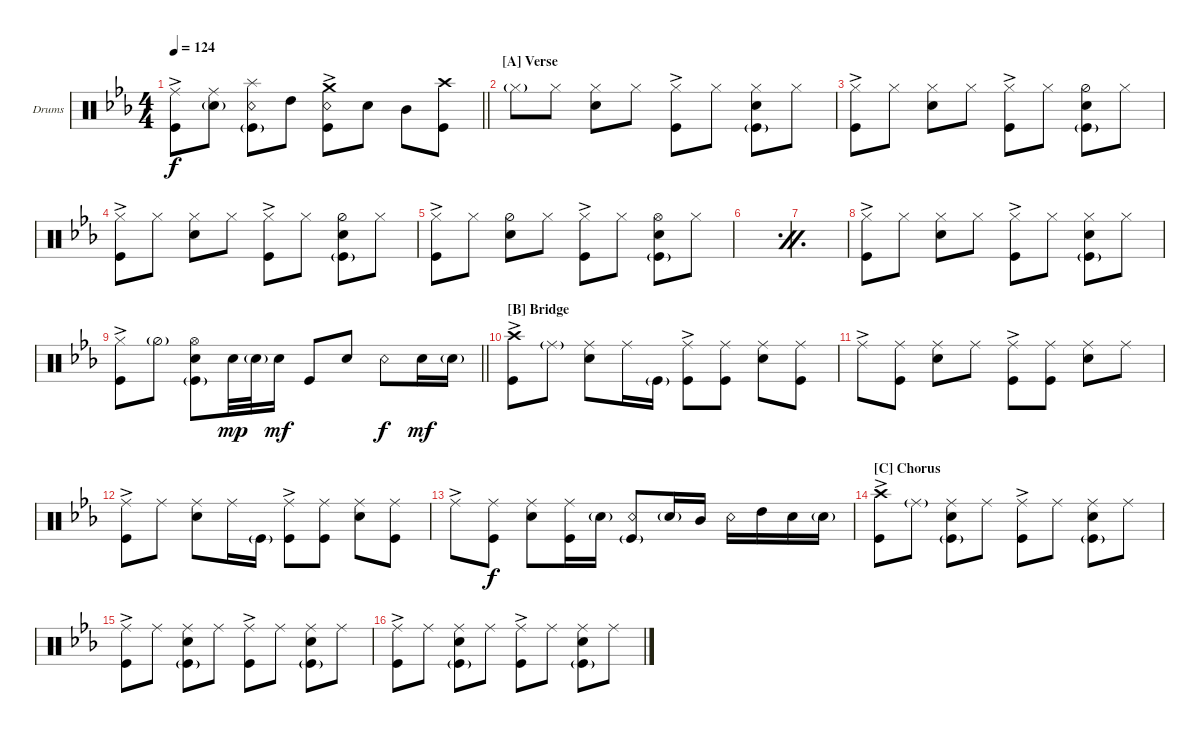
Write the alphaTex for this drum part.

\bracketExtendMode groupsimilarinstruments
\firstSystemTrackNameOrientation horizontal
\otherSystemsTrackNameOrientation horizontal
\track ("Drumkit" "Drums") {instrument percussion}
\staff {score}
\articulation defaults
\ts (4 4)
\tempo 124
\clef neutral
\barLineRight lightlight
\ks cminor
("Kick (hit)" "Ride (middle)"{ac}).8{dy f} ("Ride (middle)" "Snare (hit) 2"{g}).8 ("Snare (rim shot)" "Splash (hit)" "Kick (hit)"{g}).8 "High Tom (hit)".8 ("Kick (hit)" "Snare (rim shot)" "Crash medium (hit)"{ac}).8 "Snare (hit) 2".8 "Mid Tom (hit)".8 ("Kick (hit)" "Crash high (hit)").8 |
\section ("A" "Verse")
"Hi-Hat (closed)"{g}.8 "Hi-Hat (closed)".8 ("Snare (hit) 2" "Hi-Hat (closed)").8 "Hi-Hat (closed)".8 ("Kick (hit)" "Hi-Hat (closed)"{ac}).8 "Hi-Hat (closed)".8 ("Snare (hit) 2" "Kick (hit)"{g} "Hi-Hat (closed)").8 "Hi-Hat (closed)".8 |
("Kick (hit)" "Hi-Hat (closed)"{ac}).8 "Hi-Hat (closed)".8 ("Snare (hit) 2" "Hi-Hat (closed)").8 "Hi-Hat (closed)".8 ("Kick (hit)" "Hi-Hat (closed)"{ac}).8 "Hi-Hat (closed)".8 ("Snare (hit) 2" "Kick (hit)"{g} "Hi-Hat (half)").8 "Hi-Hat (closed)".8 |
("Kick (hit)" "Hi-Hat (closed)"{ac}).8 "Hi-Hat (closed)".8 ("Snare (hit) 2" "Hi-Hat (closed)").8 "Hi-Hat (closed)".8 ("Kick (hit)" "Hi-Hat (closed)"{ac}).8 "Hi-Hat (closed)".8 ("Snare (hit) 2" "Kick (hit)"{g} "Hi-Hat (half)").8 "Hi-Hat (closed)".8 |
("Kick (hit)" "Hi-Hat (closed)"{ac}).8 "Hi-Hat (closed)".8 ("Snare (hit) 2" "Hi-Hat (half)").8 "Hi-Hat (closed)".8 ("Kick (hit)" "Hi-Hat (closed)"{ac}).8 "Hi-Hat (closed)".8 ("Snare (hit) 2" "Kick (hit)"{g} "Hi-Hat (open)").8 "Hi-Hat (closed)".8 |
\simile firstofdouble
|
\simile secondofdouble
|
\simile none
("Kick (hit)" "Hi-Hat (closed)"{ac}).8 "Hi-Hat (closed)".8 ("Snare (hit) 2" "Hi-Hat (closed)").8 "Hi-Hat (closed)".8 ("Kick (hit)" "Hi-Hat (closed)"{ac}).8 "Hi-Hat (closed)".8 ("Snare (hit) 2" "Kick (hit)"{g} "Hi-Hat (closed)").8 "Hi-Hat (closed)".8 |
\barLineRight lightlight
("Kick (hit)" "Hi-Hat (closed)"{ac}).8 "Hi-Hat (half)"{g}.8 ("Snare (hit) 2" "Hi-Hat (open)" "Kick (hit)"{g}).8 "Snare (hit) 2".32{dy mp} "Snare (hit) 2"{g}.32 "Snare (hit) 2".16{dy mf} "Kick (hit)".8 "Snare (hit) 2".8 "Snare (rim shot)".8{dy f} "Snare (hit) 2".16{dy mf} "Snare (hit) 2"{g}.16 |
\section ("B" "Bridge")
("Kick (hit)"{ac} "Crash high (hit)").8 "Ride (middle)"{g}.8 ("Ride (middle)" "Snare (hit) 2").8 "Ride (middle)".16 "Kick (hit)"{g}.16 ("Kick (hit)"{ac} "Ride (middle)"{ac}).8 ("Ride (middle)" "Kick (hit)").8 ("Snare (hit) 2" "Ride (middle)").8 ("Ride (middle)" "Kick (hit)").8 |
"Ride (middle)"{ac}.8 ("Ride (middle)" "Kick (hit)").8 ("Snare (hit) 2" "Ride (middle)").8 "Ride (middle)".8 ("Kick (hit)"{ac} "Ride (middle)"{ac}).8 ("Ride (middle)" "Kick (hit)").8 ("Snare (hit) 2" "Ride (middle)").8 "Ride (middle)".8 |
("Kick (hit)"{ac} "Ride (middle)").8 "Ride (middle)".8 ("Ride (middle)" "Snare (hit) 2").8 "Ride (middle)".16 "Kick (hit)"{g}.16 ("Kick (hit)"{ac} "Ride (middle)"{ac}).8 ("Ride (middle)" "Kick (hit)").8 ("Snare (hit) 2" "Ride (middle)").8 ("Ride (middle)" "Kick (hit)").8 |
"Ride (middle)"{ac}.8 ("Ride (middle)" "Kick (hit)").8{dy f} ("Snare (hit) 2" "Ride (middle)").8 ("Kick (hit)" "Ride (middle)").16 "Snare (hit) 2"{g}.16 ("Snare (rim shot)" "Kick (hit)"{g}).8 "Snare (hit) 2"{g}.16 "Mid Tom (hit)".16 "Snare (rim shot)".16 "High Tom (hit)".16 "Snare (hit) 2".16 "Snare (hit) 2"{g}.16 |
\section ("C" "Chorus")
("Kick (hit)" "Crash high (hit)"{ac}).8 "Ride (middle)"{g}.8 ("Snare (hit) 2" "Ride (middle)" "Kick (hit)"{g}).8 "Ride (middle)".8 ("Kick (hit)" "Ride (middle)"{ac}).8 "Ride (middle)".8 ("Snare (hit) 2" "Ride (middle)" "Kick (hit)"{g}).8 "Ride (middle)".8 |
("Kick (hit)" "Ride (middle)"{ac}).8 "Ride (middle)".8 ("Snare (hit) 2" "Ride (middle)" "Kick (hit)"{g}).8 "Ride (middle)".8 ("Kick (hit)" "Ride (middle)"{ac}).8 "Ride (middle)".8 ("Snare (hit) 2" "Ride (middle)" "Kick (hit)"{g}).8 "Ride (middle)".8 |
("Kick (hit)" "Ride (middle)"{ac}).8 "Ride (middle)".8 ("Snare (hit) 2" "Ride (middle)" "Kick (hit)"{g}).8 "Ride (middle)".8 ("Kick (hit)" "Ride (middle)"{ac}).8 "Ride (middle)".8 ("Snare (hit) 2" "Ride (middle)" "Kick (hit)"{g}).8 "Ride (middle)".8
